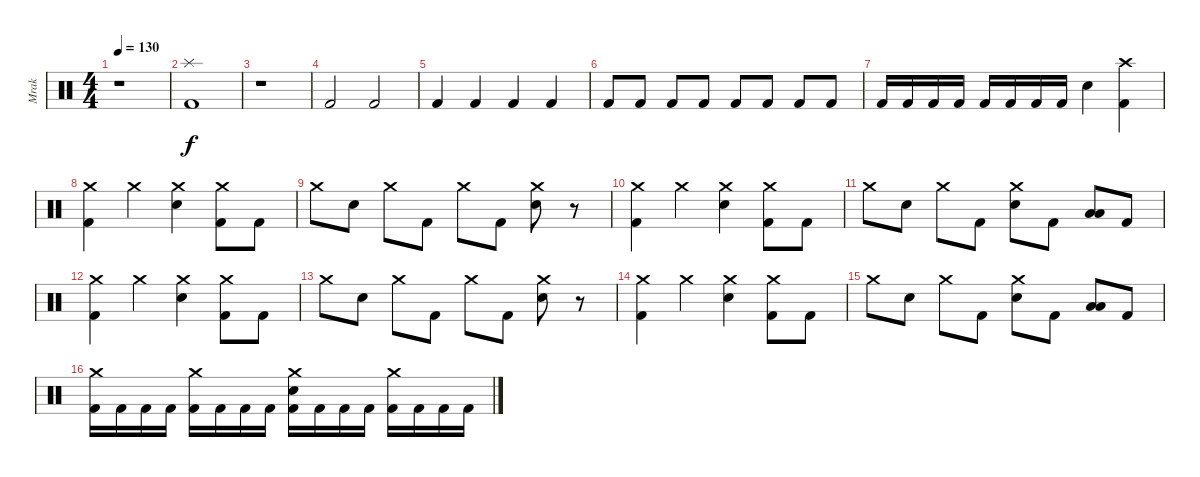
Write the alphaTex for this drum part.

\track ("Mrak" "Mrak") {instrument percussion}
\staff {score}
\articulation defaults
\ts (4 4)
\tempo 130
\clef neutral
\ks c
r.1{dy f} |
("Splash (hit)" "Kick (hit) 2").1 |
r.1 |
"Kick (hit) 2".2 "Kick (hit) 2".2 |
"Kick (hit) 2".4 "Kick (hit) 2".4 "Kick (hit) 2".4 "Kick (hit) 2".4 |
"Kick (hit) 2".8 "Kick (hit) 2".8 "Kick (hit) 2".8 "Kick (hit) 2".8 "Kick (hit) 2".8 "Kick (hit) 2".8 "Kick (hit) 2".8 "Kick (hit) 2".8 |
"Kick (hit) 2".16 "Kick (hit) 2".16 "Kick (hit) 2".16 "Kick (hit) 2".16 "Kick (hit) 2".16 "Kick (hit) 2".16 "Kick (hit) 2".16 "Kick (hit) 2".16 "Electric Snare (hit)".4 ("Crash high (hit)" "Kick (hit) 2").4 |
("Crash medium (hit)" "Kick (hit) 2").4 "Crash medium (hit)".4 ("Crash medium (hit)" "Electric Snare (hit)").4 ("Crash medium (hit)" "Kick (hit) 2").8 "Kick (hit) 2".8 |
"Crash medium (hit)".8 "Electric Snare (hit)".8 "Crash medium (hit)".8 "Kick (hit) 2".8 "Crash medium (hit)".8 "Kick (hit) 2".8 ("Crash medium (hit)" "Electric Snare (hit)").8 r.8 |
("Crash medium (hit)" "Kick (hit) 2").4 "Crash medium (hit)".4 ("Crash medium (hit)" "Electric Snare (hit)").4 ("Crash medium (hit)" "Kick (hit) 2").8 "Kick (hit) 2".8 |
"Crash medium (hit)".8 "Electric Snare (hit)".8 "Crash medium (hit)".8 "Kick (hit) 2".8 ("Crash medium (hit)" "Electric Snare (hit)").8 "Kick (hit) 2".8 ("Low Floor Tom (hit)" "Low Tom (hit)").8 "Kick (hit) 2".8 |
("Crash medium (hit)" "Kick (hit) 2").4 "Crash medium (hit)".4 ("Crash medium (hit)" "Electric Snare (hit)").4 ("Crash medium (hit)" "Kick (hit) 2").8 "Kick (hit) 2".8 |
"Crash medium (hit)".8 "Electric Snare (hit)".8 "Crash medium (hit)".8 "Kick (hit) 2".8 "Crash medium (hit)".8 "Kick (hit) 2".8 ("Crash medium (hit)" "Electric Snare (hit)").8 r.8 |
("Crash medium (hit)" "Kick (hit) 2").4 "Crash medium (hit)".4 ("Crash medium (hit)" "Electric Snare (hit)").4 ("Crash medium (hit)" "Kick (hit) 2").8 "Kick (hit) 2".8 |
"Crash medium (hit)".8 "Electric Snare (hit)".8 "Crash medium (hit)".8 "Kick (hit) 2".8 ("Crash medium (hit)" "Electric Snare (hit)").8 "Kick (hit) 2".8 ("Low Floor Tom (hit)" "Low Tom (hit)").8 "Kick (hit) 2".8 |
("Crash medium (hit)" "Kick (hit) 2").16 "Kick (hit) 2".16 "Kick (hit) 2".16 "Kick (hit) 2".16 ("Crash medium (hit)" "Kick (hit) 2").16 "Kick (hit) 2".16 "Kick (hit) 2".16 "Kick (hit) 2".16 ("Crash medium (hit)" "Electric Snare (hit)" "Kick (hit) 2").16 "Kick (hit) 2".16 "Kick (hit) 2".16 "Kick (hit) 2".16 ("Crash medium (hit)" "Kick (hit) 2").16 "Kick (hit) 2".16 "Kick (hit) 2".16 "Kick (hit) 2".16
